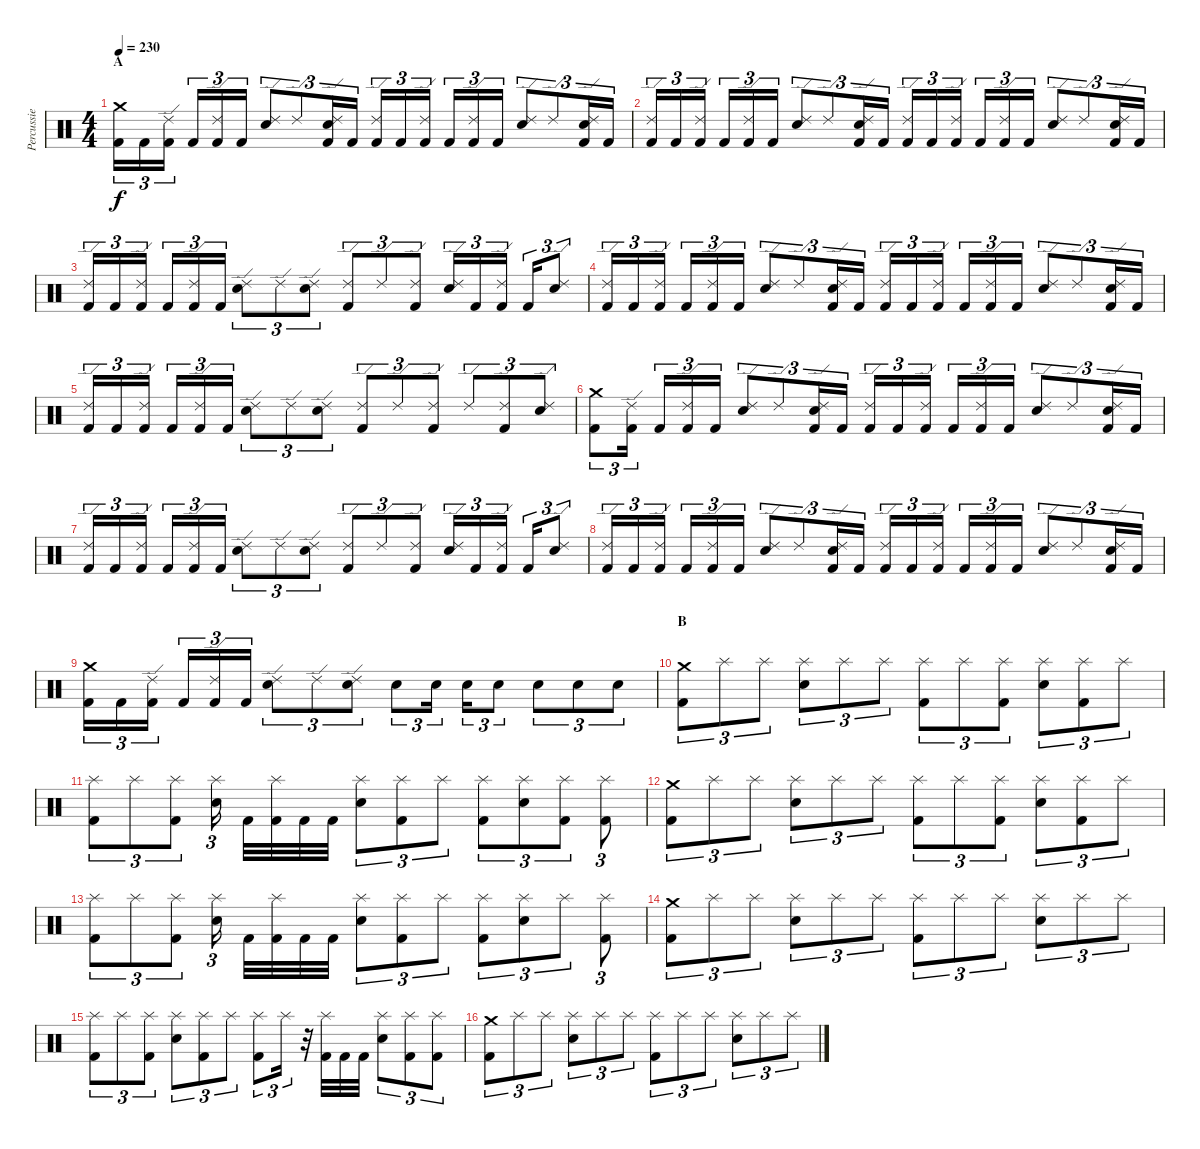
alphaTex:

\track ("Percussie" "Percussie") {instrument percussion}
\staff {score}
\articulation defaults
\ts (4 4)
\section ("" "A")
\tempo 230
\tempo 110
\tempo 230
\clef neutral
\ks c
("Crash medium (hit)" "Kick (hit) 2").16{tu (3 2) dy f volume 13} "Kick (hit) 2".16{tu (3 2)} ("Ride (edge) 2" "Kick (hit) 2").16{tu (3 2)} "Kick (hit) 2".16{tu (3 2)} ("Ride (edge) 2" "Kick (hit) 2").16{tu (3 2)} "Kick (hit) 2".16{tu (3 2)} ("Ride (edge) 2" "Electric Snare (hit)").8{tu (3 2)} "Ride (edge) 2".8{tu (3 2)} ("Ride (edge) 2" "Electric Snare (hit)" "Kick (hit) 2").16{tu (3 2)} "Kick (hit) 2".16{tu (3 2)} ("Ride (edge) 2" "Kick (hit) 2").16{tu (3 2)} "Kick (hit) 2".16{tu (3 2)} ("Ride (edge) 2" "Kick (hit) 2").16{tu (3 2)} "Kick (hit) 2".16{tu (3 2)} ("Ride (edge) 2" "Kick (hit) 2").16{tu (3 2)} "Kick (hit) 2".16{tu (3 2)} ("Ride (edge) 2" "Electric Snare (hit)").8{tu (3 2)} "Ride (edge) 2".8{tu (3 2)} ("Ride (edge) 2" "Electric Snare (hit)" "Kick (hit) 2").16{tu (3 2)} "Kick (hit) 2".16{tu (3 2)} |
("Ride (edge) 2" "Kick (hit) 2").16{tu (3 2)} "Kick (hit) 2".16{tu (3 2)} ("Ride (edge) 2" "Kick (hit) 2").16{tu (3 2)} "Kick (hit) 2".16{tu (3 2)} ("Ride (edge) 2" "Kick (hit) 2").16{tu (3 2)} "Kick (hit) 2".16{tu (3 2)} ("Ride (edge) 2" "Electric Snare (hit)").8{tu (3 2)} "Ride (edge) 2".8{tu (3 2)} ("Ride (edge) 2" "Electric Snare (hit)" "Kick (hit) 2").16{tu (3 2)} "Kick (hit) 2".16{tu (3 2)} ("Ride (edge) 2" "Kick (hit) 2").16{tu (3 2)} "Kick (hit) 2".16{tu (3 2)} ("Ride (edge) 2" "Kick (hit) 2").16{tu (3 2)} "Kick (hit) 2".16{tu (3 2)} ("Ride (edge) 2" "Kick (hit) 2").16{tu (3 2)} "Kick (hit) 2".16{tu (3 2)} ("Ride (edge) 2" "Electric Snare (hit)").8{tu (3 2)} "Ride (edge) 2".8{tu (3 2)} ("Ride (edge) 2" "Electric Snare (hit)" "Kick (hit) 2").16{tu (3 2)} "Kick (hit) 2".16{tu (3 2)} |
("Ride (edge) 2" "Kick (hit) 2").16{tu (3 2)} "Kick (hit) 2".16{tu (3 2)} ("Ride (edge) 2" "Kick (hit) 2").16{tu (3 2)} "Kick (hit) 2".16{tu (3 2)} ("Ride (edge) 2" "Kick (hit) 2").16{tu (3 2)} "Kick (hit) 2".16{tu (3 2)} ("Ride (edge) 2" "Electric Snare (hit)").8{tu (3 2)} "Ride (edge) 2".8{tu (3 2)} ("Ride (edge) 2" "Electric Snare (hit)").8{tu (3 2)} ("Ride (edge) 2" "Kick (hit) 2").8{tu (3 2)} "Ride (edge) 2".8{tu (3 2)} ("Ride (edge) 2" "Kick (hit) 2").8{tu (3 2)} ("Ride (edge) 2" "Electric Snare (hit)").16{tu (3 2)} "Kick (hit) 2".16{tu (3 2)} ("Ride (edge) 2" "Kick (hit) 2").16{tu (3 2)} "Kick (hit) 2".16{tu (3 2)} ("Ride (edge) 2" "Electric Snare (hit)").8{tu (3 2)} |
("Ride (edge) 2" "Kick (hit) 2").16{tu (3 2)} "Kick (hit) 2".16{tu (3 2)} ("Ride (edge) 2" "Kick (hit) 2").16{tu (3 2)} "Kick (hit) 2".16{tu (3 2)} ("Ride (edge) 2" "Kick (hit) 2").16{tu (3 2)} "Kick (hit) 2".16{tu (3 2)} ("Ride (edge) 2" "Electric Snare (hit)").8{tu (3 2)} "Ride (edge) 2".8{tu (3 2)} ("Ride (edge) 2" "Electric Snare (hit)" "Kick (hit) 2").16{tu (3 2)} "Kick (hit) 2".16{tu (3 2)} ("Ride (edge) 2" "Kick (hit) 2").16{tu (3 2)} "Kick (hit) 2".16{tu (3 2)} ("Ride (edge) 2" "Kick (hit) 2").16{tu (3 2)} "Kick (hit) 2".16{tu (3 2)} ("Ride (edge) 2" "Kick (hit) 2").16{tu (3 2)} "Kick (hit) 2".16{tu (3 2)} ("Ride (edge) 2" "Electric Snare (hit)").8{tu (3 2)} "Ride (edge) 2".8{tu (3 2)} ("Ride (edge) 2" "Electric Snare (hit)" "Kick (hit) 2").16{tu (3 2)} "Kick (hit) 2".16{tu (3 2)} |
("Ride (edge) 2" "Kick (hit) 2").16{tu (3 2)} "Kick (hit) 2".16{tu (3 2)} ("Ride (edge) 2" "Kick (hit) 2").16{tu (3 2)} "Kick (hit) 2".16{tu (3 2)} ("Ride (edge) 2" "Kick (hit) 2").16{tu (3 2)} "Kick (hit) 2".16{tu (3 2)} ("Ride (edge) 2" "Electric Snare (hit)").8{tu (3 2)} "Ride (edge) 2".8{tu (3 2)} ("Ride (edge) 2" "Electric Snare (hit)").8{tu (3 2)} ("Ride (edge) 2" "Kick (hit) 2").8{tu (3 2)} "Ride (edge) 2".8{tu (3 2)} ("Ride (edge) 2" "Kick (hit) 2").8{tu (3 2)} "Ride (edge) 2".8{tu (3 2)} ("Ride (edge) 2" "Kick (hit) 2").8{tu (3 2)} ("Ride (edge) 2" "Electric Snare (hit)").8{tu (3 2)} |
("Crash medium (hit)" "Kick (hit) 2").8{tu (3 2)} ("Ride (edge) 2" "Kick (hit) 2").16{tu (3 2)} "Kick (hit) 2".16{tu (3 2)} ("Ride (edge) 2" "Kick (hit) 2").16{tu (3 2)} "Kick (hit) 2".16{tu (3 2)} ("Ride (edge) 2" "Electric Snare (hit)").8{tu (3 2)} "Ride (edge) 2".8{tu (3 2)} ("Ride (edge) 2" "Electric Snare (hit)" "Kick (hit) 2").16{tu (3 2)} "Kick (hit) 2".16{tu (3 2)} ("Ride (edge) 2" "Kick (hit) 2").16{tu (3 2)} "Kick (hit) 2".16{tu (3 2)} ("Ride (edge) 2" "Kick (hit) 2").16{tu (3 2)} "Kick (hit) 2".16{tu (3 2)} ("Ride (edge) 2" "Kick (hit) 2").16{tu (3 2)} "Kick (hit) 2".16{tu (3 2)} ("Ride (edge) 2" "Electric Snare (hit)").8{tu (3 2)} "Ride (edge) 2".8{tu (3 2)} ("Ride (edge) 2" "Electric Snare (hit)" "Kick (hit) 2").16{tu (3 2)} "Kick (hit) 2".16{tu (3 2)} |
("Ride (edge) 2" "Kick (hit) 2").16{tu (3 2)} "Kick (hit) 2".16{tu (3 2)} ("Ride (edge) 2" "Kick (hit) 2").16{tu (3 2)} "Kick (hit) 2".16{tu (3 2)} ("Ride (edge) 2" "Kick (hit) 2").16{tu (3 2)} "Kick (hit) 2".16{tu (3 2)} ("Ride (edge) 2" "Electric Snare (hit)").8{tu (3 2)} "Ride (edge) 2".8{tu (3 2)} ("Ride (edge) 2" "Electric Snare (hit)").8{tu (3 2)} ("Ride (edge) 2" "Kick (hit) 2").8{tu (3 2)} "Ride (edge) 2".8{tu (3 2)} ("Ride (edge) 2" "Kick (hit) 2").8{tu (3 2)} ("Ride (edge) 2" "Electric Snare (hit)").16{tu (3 2)} "Kick (hit) 2".16{tu (3 2)} ("Ride (edge) 2" "Kick (hit) 2").16{tu (3 2)} "Kick (hit) 2".16{tu (3 2)} ("Ride (edge) 2" "Electric Snare (hit)").8{tu (3 2)} |
("Ride (edge) 2" "Kick (hit) 2").16{tu (3 2)} "Kick (hit) 2".16{tu (3 2)} ("Ride (edge) 2" "Kick (hit) 2").16{tu (3 2)} "Kick (hit) 2".16{tu (3 2)} ("Ride (edge) 2" "Kick (hit) 2").16{tu (3 2)} "Kick (hit) 2".16{tu (3 2)} ("Ride (edge) 2" "Electric Snare (hit)").8{tu (3 2)} "Ride (edge) 2".8{tu (3 2)} ("Ride (edge) 2" "Electric Snare (hit)" "Kick (hit) 2").16{tu (3 2)} "Kick (hit) 2".16{tu (3 2)} ("Ride (edge) 2" "Kick (hit) 2").16{tu (3 2)} "Kick (hit) 2".16{tu (3 2)} ("Ride (edge) 2" "Kick (hit) 2").16{tu (3 2)} "Kick (hit) 2".16{tu (3 2)} ("Ride (edge) 2" "Kick (hit) 2").16{tu (3 2)} "Kick (hit) 2".16{tu (3 2)} ("Ride (edge) 2" "Electric Snare (hit)").8{tu (3 2)} "Ride (edge) 2".8{tu (3 2)} ("Ride (edge) 2" "Electric Snare (hit)" "Kick (hit) 2").16{tu (3 2)} "Kick (hit) 2".16{tu (3 2)} |
("Crash medium (hit)" "Kick (hit) 2").16{tu (3 2)} "Kick (hit) 2".16{tu (3 2)} ("Ride (edge) 2" "Kick (hit) 2").16{tu (3 2)} "Kick (hit) 2".16{tu (3 2)} ("Ride (edge) 2" "Kick (hit) 2").16{tu (3 2)} "Kick (hit) 2".16{tu (3 2)} ("Ride (edge) 2" "Electric Snare (hit)").8{tu (3 2)} "Ride (edge) 2".8{tu (3 2)} ("Ride (edge) 2" "Electric Snare (hit)").8{tu (3 2)} "Electric Snare (hit)".8{tu (3 2)} "Electric Snare (hit)".16{tu (3 2)} "Electric Snare (hit)".16{tu (3 2)} "Electric Snare (hit)".8{tu (3 2)} "Electric Snare (hit)".8{tu (3 2)} "Electric Snare (hit)".8{tu (3 2)} "Electric Snare (hit)".8{tu (3 2)} |
\section ("" "B")
("Crash medium (hit)" "Kick (hit) 2").8{tu (3 2)} "Splash (hit)".8{tu (3 2)} "Splash (hit)".8{tu (3 2)} ("Splash (hit)" "Electric Snare (hit)").8{tu (3 2)} "Splash (hit)".8{tu (3 2)} "Splash (hit)".8{tu (3 2)} ("Splash (hit)" "Kick (hit) 2").8{tu (3 2)} "Splash (hit)".8{tu (3 2)} ("Splash (hit)" "Kick (hit) 2").8{tu (3 2)} ("Splash (hit)" "Electric Snare (hit)").8{tu (3 2)} ("Splash (hit)" "Kick (hit) 2").8{tu (3 2)} "Splash (hit)".8{tu (3 2)} |
("Splash (hit)" "Kick (hit) 2").8{tu (3 2)} "Splash (hit)".8{tu (3 2)} ("Splash (hit)" "Kick (hit) 2").8{tu (3 2)} ("Splash (hit)" "Electric Snare (hit)").16{tu (3 2)} "Kick (hit) 2".32 ("Splash (hit)" "Kick (hit) 2").32 "Kick (hit) 2".32 "Kick (hit) 2".32 ("Splash (hit)" "Electric Snare (hit)").8{tu (3 2)} ("Splash (hit)" "Kick (hit) 2").8{tu (3 2)} "Splash (hit)".8{tu (3 2)} ("Splash (hit)" "Kick (hit) 2").8{tu (3 2)} ("Splash (hit)" "Electric Snare (hit)").8{tu (3 2)} ("Splash (hit)" "Kick (hit) 2").8{tu (3 2)} ("Splash (hit)" "Kick (hit) 2").8{tu (3 2)} |
("Crash medium (hit)" "Kick (hit) 2").8{tu (3 2)} "Splash (hit)".8{tu (3 2)} "Splash (hit)".8{tu (3 2)} ("Splash (hit)" "Electric Snare (hit)").8{tu (3 2)} "Splash (hit)".8{tu (3 2)} "Splash (hit)".8{tu (3 2)} ("Splash (hit)" "Kick (hit) 2").8{tu (3 2)} "Splash (hit)".8{tu (3 2)} ("Splash (hit)" "Kick (hit) 2").8{tu (3 2)} ("Splash (hit)" "Electric Snare (hit)").8{tu (3 2)} ("Splash (hit)" "Kick (hit) 2").8{tu (3 2)} "Splash (hit)".8{tu (3 2)} |
("Splash (hit)" "Kick (hit) 2").8{tu (3 2)} "Splash (hit)".8{tu (3 2)} ("Splash (hit)" "Kick (hit) 2").8{tu (3 2)} ("Splash (hit)" "Electric Snare (hit)").16{tu (3 2)} "Kick (hit) 2".32 ("Splash (hit)" "Kick (hit) 2").32 "Kick (hit) 2".32 "Kick (hit) 2".32 ("Splash (hit)" "Electric Snare (hit)").8{tu (3 2)} ("Splash (hit)" "Kick (hit) 2").8{tu (3 2)} "Splash (hit)".8{tu (3 2)} ("Splash (hit)" "Kick (hit) 2").8{tu (3 2)} ("Splash (hit)" "Electric Snare (hit)").8{tu (3 2)} "Splash (hit)".8{tu (3 2)} ("Splash (hit)" "Kick (hit) 2").8{tu (3 2)} |
("Crash medium (hit)" "Kick (hit) 2").8{tu (3 2)} "Splash (hit)".8{tu (3 2)} "Splash (hit)".8{tu (3 2)} ("Splash (hit)" "Electric Snare (hit)").8{tu (3 2)} "Splash (hit)".8{tu (3 2)} "Splash (hit)".8{tu (3 2)} ("Splash (hit)" "Kick (hit) 2").8{tu (3 2)} "Splash (hit)".8{tu (3 2)} "Splash (hit)".8{tu (3 2)} ("Splash (hit)" "Electric Snare (hit)").8{tu (3 2)} "Splash (hit)".8{tu (3 2)} "Splash (hit)".8{tu (3 2)} |
("Splash (hit)" "Kick (hit) 2").8{tu (3 2)} "Splash (hit)".8{tu (3 2)} ("Splash (hit)" "Kick (hit) 2").8{tu (3 2)} ("Splash (hit)" "Electric Snare (hit)").8{tu (3 2)} ("Splash (hit)" "Kick (hit) 2").8{tu (3 2)} "Splash (hit)".8{tu (3 2)} ("Splash (hit)" "Kick (hit) 2").8{tu (3 2)} "Splash (hit)".16{tu (3 2)} r.32 ("Splash (hit)" "Kick (hit) 2").32 "Kick (hit) 2".32 "Kick (hit) 2".32 ("Splash (hit)" "Electric Snare (hit)").8{tu (3 2)} ("Splash (hit)" "Kick (hit) 2").8{tu (3 2)} ("Splash (hit)" "Kick (hit) 2").8{tu (3 2)} |
("Crash medium (hit)" "Kick (hit) 2").8{tu (3 2)} "Splash (hit)".8{tu (3 2)} "Splash (hit)".8{tu (3 2)} ("Splash (hit)" "Electric Snare (hit)").8{tu (3 2)} "Splash (hit)".8{tu (3 2)} "Splash (hit)".8{tu (3 2)} ("Splash (hit)" "Kick (hit) 2").8{tu (3 2)} "Splash (hit)".8{tu (3 2)} "Splash (hit)".8{tu (3 2)} ("Splash (hit)" "Electric Snare (hit)").8{tu (3 2)} "Splash (hit)".8{tu (3 2)} "Splash (hit)".8{tu (3 2)}
